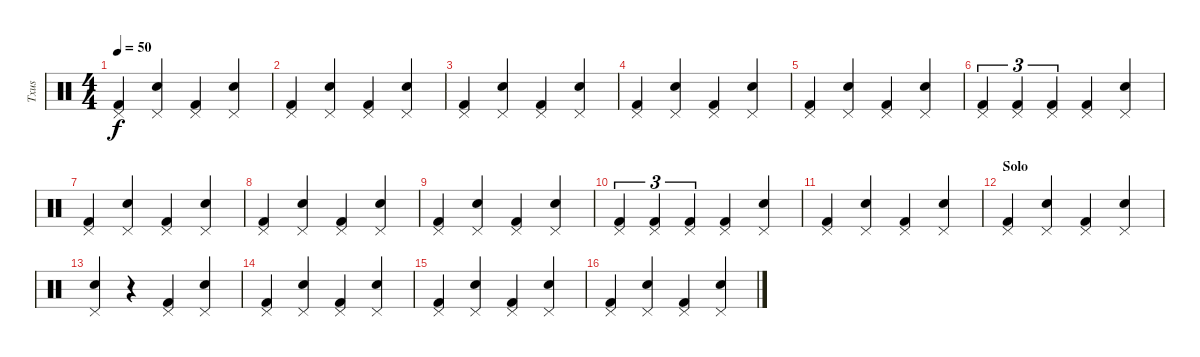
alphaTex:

\track ("Txus" "Txus") {instrument percussion}
\staff {score}
\articulation defaults
\ts (4 4)
\tempo 50
\clef neutral
\ks c
("Pedal Hi-Hat (hit)" "Kick (hit) 2").4{dy f} ("Pedal Hi-Hat (hit)" "Snare (hit) 2").4 ("Pedal Hi-Hat (hit)" "Kick (hit) 2").4 ("Pedal Hi-Hat (hit)" "Snare (hit) 2").4 |
("Pedal Hi-Hat (hit)" "Kick (hit) 2").4 ("Pedal Hi-Hat (hit)" "Snare (hit) 2").4 ("Pedal Hi-Hat (hit)" "Kick (hit) 2").4 ("Pedal Hi-Hat (hit)" "Snare (hit) 2").4 |
("Pedal Hi-Hat (hit)" "Kick (hit) 2").4 ("Pedal Hi-Hat (hit)" "Snare (hit) 2").4 ("Pedal Hi-Hat (hit)" "Kick (hit) 2").4 ("Pedal Hi-Hat (hit)" "Snare (hit) 2").4 |
("Pedal Hi-Hat (hit)" "Kick (hit) 2").4 ("Pedal Hi-Hat (hit)" "Snare (hit) 2").4 ("Pedal Hi-Hat (hit)" "Kick (hit) 2").4 ("Pedal Hi-Hat (hit)" "Snare (hit) 2").4 |
("Pedal Hi-Hat (hit)" "Kick (hit) 2").4 ("Pedal Hi-Hat (hit)" "Snare (hit) 2").4 ("Pedal Hi-Hat (hit)" "Kick (hit) 2").4 ("Pedal Hi-Hat (hit)" "Snare (hit) 2").4 |
("Pedal Hi-Hat (hit)" "Kick (hit) 2").4{tu (3 2)} ("Pedal Hi-Hat (hit)" "Kick (hit) 2").4{tu (3 2)} ("Pedal Hi-Hat (hit)" "Kick (hit) 2").4{tu (3 2)} ("Pedal Hi-Hat (hit)" "Kick (hit) 2").4 ("Pedal Hi-Hat (hit)" "Snare (hit) 2").4 |
("Pedal Hi-Hat (hit)" "Kick (hit) 2").4 ("Pedal Hi-Hat (hit)" "Snare (hit) 2").4 ("Pedal Hi-Hat (hit)" "Kick (hit) 2").4 ("Pedal Hi-Hat (hit)" "Snare (hit) 2").4 |
("Pedal Hi-Hat (hit)" "Kick (hit) 2").4 ("Pedal Hi-Hat (hit)" "Snare (hit) 2").4 ("Pedal Hi-Hat (hit)" "Kick (hit) 2").4 ("Pedal Hi-Hat (hit)" "Snare (hit) 2").4 |
("Pedal Hi-Hat (hit)" "Kick (hit) 2").4 ("Pedal Hi-Hat (hit)" "Snare (hit) 2").4 ("Pedal Hi-Hat (hit)" "Kick (hit) 2").4 ("Pedal Hi-Hat (hit)" "Snare (hit) 2").4 |
("Pedal Hi-Hat (hit)" "Kick (hit) 2").4{tu (3 2)} ("Pedal Hi-Hat (hit)" "Kick (hit) 2").4{tu (3 2)} ("Pedal Hi-Hat (hit)" "Kick (hit) 2").4{tu (3 2)} ("Pedal Hi-Hat (hit)" "Kick (hit) 2").4 ("Pedal Hi-Hat (hit)" "Snare (hit) 2").4 |
("Pedal Hi-Hat (hit)" "Kick (hit) 2").4 ("Pedal Hi-Hat (hit)" "Snare (hit) 2").4 ("Pedal Hi-Hat (hit)" "Kick (hit) 2").4 ("Pedal Hi-Hat (hit)" "Snare (hit) 2").4 |
\section ("" "Solo")
("Pedal Hi-Hat (hit)" "Kick (hit) 2").4 ("Pedal Hi-Hat (hit)" "Snare (hit) 2").4 ("Pedal Hi-Hat (hit)" "Kick (hit) 2").4 ("Pedal Hi-Hat (hit)" "Snare (hit) 2").4 |
("Pedal Hi-Hat (hit)" "Snare (hit) 2").4 r.4 ("Pedal Hi-Hat (hit)" "Kick (hit) 2").4 ("Pedal Hi-Hat (hit)" "Snare (hit) 2").4 |
("Pedal Hi-Hat (hit)" "Kick (hit) 2").4 ("Pedal Hi-Hat (hit)" "Snare (hit) 2").4 ("Pedal Hi-Hat (hit)" "Kick (hit) 2").4 ("Pedal Hi-Hat (hit)" "Snare (hit) 2").4 |
("Pedal Hi-Hat (hit)" "Kick (hit) 2").4 ("Pedal Hi-Hat (hit)" "Snare (hit) 2").4 ("Pedal Hi-Hat (hit)" "Kick (hit) 2").4 ("Pedal Hi-Hat (hit)" "Snare (hit) 2").4 |
("Pedal Hi-Hat (hit)" "Kick (hit) 2").4 ("Pedal Hi-Hat (hit)" "Snare (hit) 2").4 ("Pedal Hi-Hat (hit)" "Kick (hit) 2").4 ("Pedal Hi-Hat (hit)" "Snare (hit) 2").4
